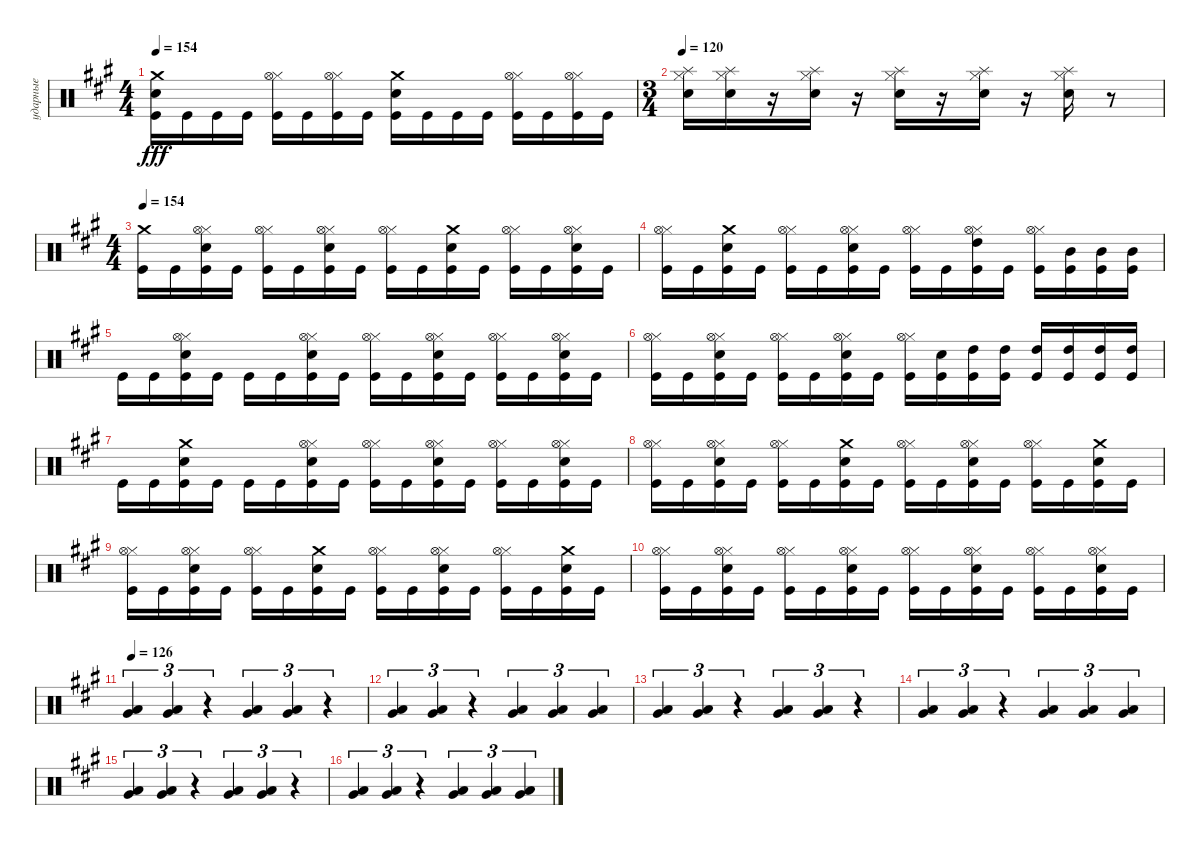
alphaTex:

\track ("ударные" "ударные") {instrument percussion}
\staff {score}
\articulation defaults
\ts (4 4)
\tempo 154
\clef neutral
\ks f#minor
("Crash medium (hit)" "Snare (hit) 2" "Kick (hit)").16{dy fff} "Kick (hit)".16 "Kick (hit)".16 "Kick (hit)".16 ("Hi-Hat (closed)" "Kick (hit)" "Hi-Hat (open)").16 "Kick (hit)".16 ("Hi-Hat (closed)" "Kick (hit)" "Hi-Hat (open)").16 "Kick (hit)".16 ("Crash medium (hit)" "Snare (hit) 2" "Kick (hit)").16 "Kick (hit)".16 "Kick (hit)".16 "Kick (hit)".16 ("Hi-Hat (closed)" "Kick (hit)" "Hi-Hat (open)").16 "Kick (hit)".16 ("Hi-Hat (closed)" "Kick (hit)" "Hi-Hat (open)").16 "Kick (hit)".16 |
\ts (3 4)
\tempo 120
("Snare (hit) 2" "Splash (hit)" "Hi-Hat (closed)").16 ("Snare (hit) 2" "Splash (hit)" "Hi-Hat (closed)").16 r.16 ("Snare (hit) 2" "Splash (hit)" "Hi-Hat (closed)").16 r.16 ("Snare (hit) 2" "Splash (hit)" "Hi-Hat (closed)").16 r.16 ("Snare (hit) 2" "Splash (hit)" "Hi-Hat (closed)").16 r.16 ("Snare (hit) 2" "Splash (hit)" "Hi-Hat (closed)").16 r.8 |
\ts (4 4)
\tempo 154
("Crash medium (hit)" "Kick (hit)").16 "Kick (hit)".16 ("Kick (hit)" "Snare (hit) 2" "Hi-Hat (closed)" "Hi-Hat (open)").16 "Kick (hit)".16 ("Kick (hit)" "Hi-Hat (closed)" "Hi-Hat (open)").16 "Kick (hit)".16 ("Kick (hit)" "Snare (hit) 2" "Hi-Hat (closed)" "Hi-Hat (open)").16 "Kick (hit)".16 ("Hi-Hat (closed)" "Kick (hit)" "Hi-Hat (open)").16 "Kick (hit)".16 ("Crash medium (hit)" "Kick (hit)" "Snare (hit) 2").16 "Kick (hit)".16 ("Kick (hit)" "Hi-Hat (closed)" "Hi-Hat (open)").16 "Kick (hit)".16 ("Kick (hit)" "Snare (hit) 2" "Hi-Hat (closed)" "Hi-Hat (open)").16 "Kick (hit)".16 |
("Hi-Hat (closed)" "Kick (hit)" "Hi-Hat (open)").16 "Kick (hit)".16 ("Crash medium (hit)" "Kick (hit)" "Snare (hit) 2").16 "Kick (hit)".16 ("Kick (hit)" "Hi-Hat (closed)" "Hi-Hat (open)").16 "Kick (hit)".16 ("Kick (hit)" "Snare (hit) 2" "Hi-Hat (closed)" "Hi-Hat (open)").16 "Kick (hit)".16 ("Hi-Hat (closed)" "Kick (hit)" "Hi-Hat (open)").16 "Kick (hit)".16 ("High Tom (hit)" "Kick (hit)" "Hi-Hat (closed)" "Hi-Hat (open)").16 "Kick (hit)".16 ("Hi-Hat (closed)" "Kick (hit)" "Hi-Hat (open)").16 ("Mid Tom (hit)" "Kick (hit)").16 ("Mid Tom (hit)" "Kick (hit)").16 ("Mid Tom (hit)" "Kick (hit)").16 |
"Kick (hit)".16 "Kick (hit)".16 ("Kick (hit)" "Snare (hit) 2" "Hi-Hat (closed)" "Hi-Hat (open)").16 "Kick (hit)".16 "Kick (hit)".16 "Kick (hit)".16 ("Kick (hit)" "Snare (hit) 2" "Hi-Hat (closed)" "Hi-Hat (open)").16 "Kick (hit)".16 ("Hi-Hat (closed)" "Kick (hit)" "Hi-Hat (open)").16 "Kick (hit)".16 ("Kick (hit)" "Snare (hit) 2" "Hi-Hat (closed)" "Hi-Hat (open)").16 "Kick (hit)".16 ("Kick (hit)" "Hi-Hat (closed)" "Hi-Hat (open)").16 "Kick (hit)".16 ("Kick (hit)" "Snare (hit) 2" "Hi-Hat (closed)" "Hi-Hat (open)").16 "Kick (hit)".16 |
("Hi-Hat (closed)" "Kick (hit)" "Hi-Hat (open)").16 "Kick (hit)".16 ("Kick (hit)" "Snare (hit) 2" "Hi-Hat (closed)" "Hi-Hat (open)").16 "Kick (hit)".16 ("Kick (hit)" "Hi-Hat (closed)" "Hi-Hat (open)").16 "Kick (hit)".16 ("Kick (hit)" "Snare (hit) 2" "Hi-Hat (closed)" "Hi-Hat (open)").16 "Kick (hit)".16 ("Hi-Hat (closed)" "Kick (hit)" "Hi-Hat (open)").16 ("Snare (hit) 2" "Kick (hit)").16 ("High Tom (hit)" "Kick (hit)").16 ("High Tom (hit)" "Kick (hit)").16 ("High Tom (hit)" "Kick (hit)").16 ("High Tom (hit)" "Kick (hit)").16 ("High Tom (hit)" "Kick (hit)").16 ("High Tom (hit)" "Kick (hit)").16 |
"Kick (hit)".16 "Kick (hit)".16 ("Crash medium (hit)" "Kick (hit)" "Snare (hit) 2").16 "Kick (hit)".16 "Kick (hit)".16 "Kick (hit)".16 ("Kick (hit)" "Snare (hit) 2" "Hi-Hat (closed)" "Hi-Hat (open)").16 "Kick (hit)".16 ("Hi-Hat (closed)" "Kick (hit)" "Hi-Hat (open)").16 "Kick (hit)".16 ("Kick (hit)" "Snare (hit) 2" "Hi-Hat (closed)" "Hi-Hat (open)").16 "Kick (hit)".16 ("Kick (hit)" "Hi-Hat (closed)" "Hi-Hat (open)").16 "Kick (hit)".16 ("Kick (hit)" "Snare (hit) 2" "Hi-Hat (closed)" "Hi-Hat (open)").16 "Kick (hit)".16 |
("Hi-Hat (closed)" "Kick (hit)" "Hi-Hat (open)").16 "Kick (hit)".16 ("Hi-Hat (closed)" "Kick (hit)" "Snare (hit) 2" "Hi-Hat (open)").16 "Kick (hit)".16 ("Hi-Hat (closed)" "Kick (hit)" "Hi-Hat (open)").16 "Kick (hit)".16 ("Crash medium (hit)" "Kick (hit)" "Snare (hit) 2").16 "Kick (hit)".16 ("Hi-Hat (closed)" "Kick (hit)" "Hi-Hat (open)").16 "Kick (hit)".16 ("Kick (hit)" "Snare (hit) 2" "Hi-Hat (closed)" "Hi-Hat (open)").16 "Kick (hit)".16 ("Kick (hit)" "Hi-Hat (closed)" "Hi-Hat (open)").16 "Kick (hit)".16 ("Crash medium (hit)" "Kick (hit)" "Snare (hit) 2").16 "Kick (hit)".16 |
("Hi-Hat (closed)" "Kick (hit)" "Hi-Hat (open)").16 "Kick (hit)".16 ("Hi-Hat (closed)" "Kick (hit)" "Snare (hit) 2" "Hi-Hat (open)").16 "Kick (hit)".16 ("Hi-Hat (closed)" "Kick (hit)" "Hi-Hat (open)").16 "Kick (hit)".16 ("Crash medium (hit)" "Kick (hit)" "Snare (hit) 2").16 "Kick (hit)".16 ("Hi-Hat (closed)" "Kick (hit)" "Hi-Hat (open)").16 "Kick (hit)".16 ("Kick (hit)" "Snare (hit) 2" "Hi-Hat (closed)" "Hi-Hat (open)").16 "Kick (hit)".16 ("Kick (hit)" "Hi-Hat (closed)" "Hi-Hat (open)").16 "Kick (hit)".16 ("Crash medium (hit)" "Kick (hit)" "Snare (hit) 2").16 "Kick (hit)".16 |
("Hi-Hat (closed)" "Kick (hit)" "Hi-Hat (open)").16 "Kick (hit)".16 ("Hi-Hat (closed)" "Kick (hit)" "Snare (hit) 2" "Hi-Hat (open)").16 "Kick (hit)".16 ("Hi-Hat (closed)" "Kick (hit)" "Hi-Hat (open)").16 "Kick (hit)".16 ("Kick (hit)" "Snare (hit) 2" "Hi-Hat (closed)" "Hi-Hat (open)").16 "Kick (hit)".16 ("Hi-Hat (closed)" "Kick (hit)" "Hi-Hat (open)").16 "Kick (hit)".16 ("Kick (hit)" "Snare (hit) 2" "Hi-Hat (closed)" "Hi-Hat (open)").16 "Kick (hit)".16 ("Kick (hit)" "Hi-Hat (closed)" "Hi-Hat (open)").16 "Kick (hit)".16 ("Kick (hit)" "Snare (hit) 2" "Hi-Hat (closed)" "Hi-Hat (open)").16 "Kick (hit)".16 |
\tempo 126
("Very Low Tom (hit)" "Low Tom (hit)").4{tu (3 2)} ("Very Low Tom (hit)" "Low Tom (hit)").4{tu (3 2)} r.4{tu (3 2)} ("Very Low Tom (hit)" "Low Tom (hit)").4{tu (3 2)} ("Very Low Tom (hit)" "Low Tom (hit)").4{tu (3 2)} r.4{tu (3 2)} |
("Very Low Tom (hit)" "Low Tom (hit)").4{tu (3 2)} ("Very Low Tom (hit)" "Low Tom (hit)").4{tu (3 2)} r.4{tu (3 2)} ("Very Low Tom (hit)" "Low Tom (hit)").4{tu (3 2)} ("Very Low Tom (hit)" "Low Tom (hit)").4{tu (3 2)} ("Very Low Tom (hit)" "Low Tom (hit)").4{tu (3 2)} |
("Very Low Tom (hit)" "Low Tom (hit)").4{tu (3 2)} ("Very Low Tom (hit)" "Low Tom (hit)").4{tu (3 2)} r.4{tu (3 2)} ("Very Low Tom (hit)" "Low Tom (hit)").4{tu (3 2)} ("Very Low Tom (hit)" "Low Tom (hit)").4{tu (3 2)} r.4{tu (3 2)} |
("Very Low Tom (hit)" "Low Tom (hit)").4{tu (3 2)} ("Very Low Tom (hit)" "Low Tom (hit)").4{tu (3 2)} r.4{tu (3 2)} ("Very Low Tom (hit)" "Low Tom (hit)").4{tu (3 2)} ("Very Low Tom (hit)" "Low Tom (hit)").4{tu (3 2)} ("Very Low Tom (hit)" "Low Tom (hit)").4{tu (3 2)} |
("Very Low Tom (hit)" "Low Tom (hit)").4{tu (3 2)} ("Very Low Tom (hit)" "Low Tom (hit)").4{tu (3 2)} r.4{tu (3 2)} ("Very Low Tom (hit)" "Low Tom (hit)").4{tu (3 2)} ("Very Low Tom (hit)" "Low Tom (hit)").4{tu (3 2)} r.4{tu (3 2)} |
("Very Low Tom (hit)" "Low Tom (hit)").4{tu (3 2)} ("Very Low Tom (hit)" "Low Tom (hit)").4{tu (3 2)} r.4{tu (3 2)} ("Very Low Tom (hit)" "Low Tom (hit)").4{tu (3 2)} ("Very Low Tom (hit)" "Low Tom (hit)").4{tu (3 2)} ("Very Low Tom (hit)" "Low Tom (hit)").4{tu (3 2)}
